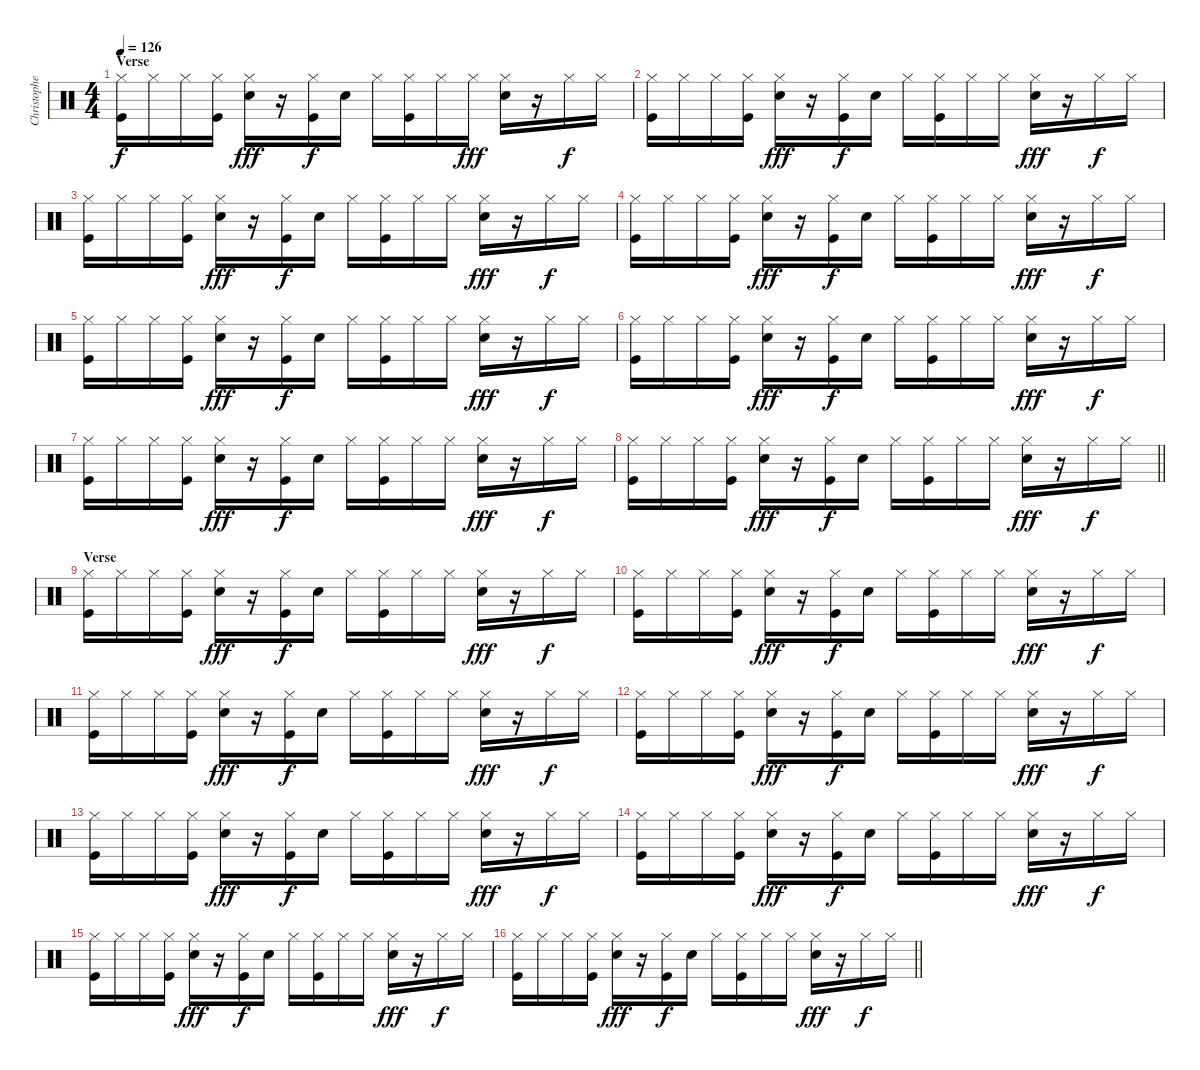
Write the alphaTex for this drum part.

\track ("Christopher - Drums" "Christophe") {mute instrument percussion}
\staff {score}
\articulation defaults
\ts (4 4)
\section ("" "Verse")
\tempo 126
\clef neutral
\ks c
("Hi-Hat (closed)" "Kick (hit)").16{dy f} "Hi-Hat (closed)".16 "Hi-Hat (closed)".16 ("Hi-Hat (closed)" "Kick (hit)").16 ("Hi-Hat (closed)" "Snare (hit) 2").16{dy fff} r.16 ("Hi-Hat (closed)" "Kick (hit)").16{dy f} "Snare (hit) 2".16 "Hi-Hat (closed)".16 ("Hi-Hat (closed)" "Kick (hit)").16 "Hi-Hat (closed)".16 "Hi-Hat (closed)".16{dy fff} ("Hi-Hat (closed)" "Snare (hit) 2").16 r.16 "Hi-Hat (closed)".16{dy f} "Hi-Hat (closed)".16 |
("Hi-Hat (closed)" "Kick (hit)").16 "Hi-Hat (closed)".16 "Hi-Hat (closed)".16 ("Hi-Hat (closed)" "Kick (hit)").16 ("Hi-Hat (closed)" "Snare (hit) 2").16{dy fff} r.16 ("Hi-Hat (closed)" "Kick (hit)").16{dy f} "Snare (hit) 2".16 "Hi-Hat (closed)".16 ("Hi-Hat (closed)" "Kick (hit)").16 "Hi-Hat (closed)".16 "Hi-Hat (closed)".16 ("Hi-Hat (closed)" "Snare (hit) 2").16{dy fff} r.16 "Hi-Hat (closed)".16{dy f} "Hi-Hat (closed)".16 |
("Hi-Hat (closed)" "Kick (hit)").16 "Hi-Hat (closed)".16 "Hi-Hat (closed)".16 ("Hi-Hat (closed)" "Kick (hit)").16 ("Hi-Hat (closed)" "Snare (hit) 2").16{dy fff} r.16 ("Hi-Hat (closed)" "Kick (hit)").16{dy f} "Snare (hit) 2".16 "Hi-Hat (closed)".16 ("Hi-Hat (closed)" "Kick (hit)").16 "Hi-Hat (closed)".16 "Hi-Hat (closed)".16 ("Hi-Hat (closed)" "Snare (hit) 2").16{dy fff} r.16 "Hi-Hat (closed)".16{dy f} "Hi-Hat (closed)".16 |
("Hi-Hat (closed)" "Kick (hit)").16 "Hi-Hat (closed)".16 "Hi-Hat (closed)".16 ("Hi-Hat (closed)" "Kick (hit)").16 ("Hi-Hat (closed)" "Snare (hit) 2").16{dy fff} r.16 ("Hi-Hat (closed)" "Kick (hit)").16{dy f} "Snare (hit) 2".16 "Hi-Hat (closed)".16 ("Hi-Hat (closed)" "Kick (hit)").16 "Hi-Hat (closed)".16 "Hi-Hat (closed)".16 ("Hi-Hat (closed)" "Snare (hit) 2").16{dy fff} r.16 "Hi-Hat (closed)".16{dy f} "Hi-Hat (closed)".16 |
("Hi-Hat (closed)" "Kick (hit)").16 "Hi-Hat (closed)".16 "Hi-Hat (closed)".16 ("Hi-Hat (closed)" "Kick (hit)").16 ("Hi-Hat (closed)" "Snare (hit) 2").16{dy fff} r.16 ("Hi-Hat (closed)" "Kick (hit)").16{dy f} "Snare (hit) 2".16 "Hi-Hat (closed)".16 ("Hi-Hat (closed)" "Kick (hit)").16 "Hi-Hat (closed)".16 "Hi-Hat (closed)".16 ("Hi-Hat (closed)" "Snare (hit) 2").16{dy fff} r.16 "Hi-Hat (closed)".16{dy f} "Hi-Hat (closed)".16 |
("Hi-Hat (closed)" "Kick (hit)").16 "Hi-Hat (closed)".16 "Hi-Hat (closed)".16 ("Hi-Hat (closed)" "Kick (hit)").16 ("Hi-Hat (closed)" "Snare (hit) 2").16{dy fff} r.16 ("Hi-Hat (closed)" "Kick (hit)").16{dy f} "Snare (hit) 2".16 "Hi-Hat (closed)".16 ("Hi-Hat (closed)" "Kick (hit)").16 "Hi-Hat (closed)".16 "Hi-Hat (closed)".16 ("Hi-Hat (closed)" "Snare (hit) 2").16{dy fff} r.16 "Hi-Hat (closed)".16{dy f} "Hi-Hat (closed)".16 |
("Hi-Hat (closed)" "Kick (hit)").16 "Hi-Hat (closed)".16 "Hi-Hat (closed)".16 ("Hi-Hat (closed)" "Kick (hit)").16 ("Hi-Hat (closed)" "Snare (hit) 2").16{dy fff} r.16 ("Hi-Hat (closed)" "Kick (hit)").16{dy f} "Snare (hit) 2".16 "Hi-Hat (closed)".16 ("Hi-Hat (closed)" "Kick (hit)").16 "Hi-Hat (closed)".16 "Hi-Hat (closed)".16 ("Hi-Hat (closed)" "Snare (hit) 2").16{dy fff} r.16 "Hi-Hat (closed)".16{dy f} "Hi-Hat (closed)".16 |
\barLineRight lightlight
("Hi-Hat (closed)" "Kick (hit)").16 "Hi-Hat (closed)".16 "Hi-Hat (closed)".16 ("Hi-Hat (closed)" "Kick (hit)").16 ("Hi-Hat (closed)" "Snare (hit) 2").16{dy fff} r.16 ("Hi-Hat (closed)" "Kick (hit)").16{dy f} "Snare (hit) 2".16 "Hi-Hat (closed)".16 ("Hi-Hat (closed)" "Kick (hit)").16 "Hi-Hat (closed)".16 "Hi-Hat (closed)".16 ("Hi-Hat (closed)" "Snare (hit) 2").16{dy fff} r.16 "Hi-Hat (closed)".16{dy f} "Hi-Hat (closed)".16 |
\section ("" "Verse")
("Hi-Hat (closed)" "Kick (hit)").16 "Hi-Hat (closed)".16 "Hi-Hat (closed)".16 ("Hi-Hat (closed)" "Kick (hit)").16 ("Hi-Hat (closed)" "Snare (hit) 2").16{dy fff} r.16 ("Hi-Hat (closed)" "Kick (hit)").16{dy f} "Snare (hit) 2".16 "Hi-Hat (closed)".16 ("Hi-Hat (closed)" "Kick (hit)").16 "Hi-Hat (closed)".16 "Hi-Hat (closed)".16 ("Hi-Hat (closed)" "Snare (hit) 2").16{dy fff} r.16 "Hi-Hat (closed)".16{dy f} "Hi-Hat (closed)".16 |
("Hi-Hat (closed)" "Kick (hit)").16 "Hi-Hat (closed)".16 "Hi-Hat (closed)".16 ("Hi-Hat (closed)" "Kick (hit)").16 ("Hi-Hat (closed)" "Snare (hit) 2").16{dy fff} r.16 ("Hi-Hat (closed)" "Kick (hit)").16{dy f} "Snare (hit) 2".16 "Hi-Hat (closed)".16 ("Hi-Hat (closed)" "Kick (hit)").16 "Hi-Hat (closed)".16 "Hi-Hat (closed)".16 ("Hi-Hat (closed)" "Snare (hit) 2").16{dy fff} r.16 "Hi-Hat (closed)".16{dy f} "Hi-Hat (closed)".16 |
("Hi-Hat (closed)" "Kick (hit)").16 "Hi-Hat (closed)".16 "Hi-Hat (closed)".16 ("Hi-Hat (closed)" "Kick (hit)").16 ("Hi-Hat (closed)" "Snare (hit) 2").16{dy fff} r.16 ("Hi-Hat (closed)" "Kick (hit)").16{dy f} "Snare (hit) 2".16 "Hi-Hat (closed)".16 ("Hi-Hat (closed)" "Kick (hit)").16 "Hi-Hat (closed)".16 "Hi-Hat (closed)".16 ("Hi-Hat (closed)" "Snare (hit) 2").16{dy fff} r.16 "Hi-Hat (closed)".16{dy f} "Hi-Hat (closed)".16 |
("Hi-Hat (closed)" "Kick (hit)").16 "Hi-Hat (closed)".16 "Hi-Hat (closed)".16 ("Hi-Hat (closed)" "Kick (hit)").16 ("Hi-Hat (closed)" "Snare (hit) 2").16{dy fff} r.16 ("Hi-Hat (closed)" "Kick (hit)").16{dy f} "Snare (hit) 2".16 "Hi-Hat (closed)".16 ("Hi-Hat (closed)" "Kick (hit)").16 "Hi-Hat (closed)".16 "Hi-Hat (closed)".16 ("Hi-Hat (closed)" "Snare (hit) 2").16{dy fff} r.16 "Hi-Hat (closed)".16{dy f} "Hi-Hat (closed)".16 |
("Hi-Hat (closed)" "Kick (hit)").16 "Hi-Hat (closed)".16 "Hi-Hat (closed)".16 ("Hi-Hat (closed)" "Kick (hit)").16 ("Hi-Hat (closed)" "Snare (hit) 2").16{dy fff} r.16 ("Hi-Hat (closed)" "Kick (hit)").16{dy f} "Snare (hit) 2".16 "Hi-Hat (closed)".16 ("Hi-Hat (closed)" "Kick (hit)").16 "Hi-Hat (closed)".16 "Hi-Hat (closed)".16 ("Hi-Hat (closed)" "Snare (hit) 2").16{dy fff} r.16 "Hi-Hat (closed)".16{dy f} "Hi-Hat (closed)".16 |
("Hi-Hat (closed)" "Kick (hit)").16 "Hi-Hat (closed)".16 "Hi-Hat (closed)".16 ("Hi-Hat (closed)" "Kick (hit)").16 ("Hi-Hat (closed)" "Snare (hit) 2").16{dy fff} r.16 ("Hi-Hat (closed)" "Kick (hit)").16{dy f} "Snare (hit) 2".16 "Hi-Hat (closed)".16 ("Hi-Hat (closed)" "Kick (hit)").16 "Hi-Hat (closed)".16 "Hi-Hat (closed)".16 ("Hi-Hat (closed)" "Snare (hit) 2").16{dy fff} r.16 "Hi-Hat (closed)".16{dy f} "Hi-Hat (closed)".16 |
("Hi-Hat (closed)" "Kick (hit)").16 "Hi-Hat (closed)".16 "Hi-Hat (closed)".16 ("Hi-Hat (closed)" "Kick (hit)").16 ("Hi-Hat (closed)" "Snare (hit) 2").16{dy fff} r.16 ("Hi-Hat (closed)" "Kick (hit)").16{dy f} "Snare (hit) 2".16 "Hi-Hat (closed)".16 ("Hi-Hat (closed)" "Kick (hit)").16 "Hi-Hat (closed)".16 "Hi-Hat (closed)".16 ("Hi-Hat (closed)" "Snare (hit) 2").16{dy fff} r.16 "Hi-Hat (closed)".16{dy f} "Hi-Hat (closed)".16 |
\barLineRight lightlight
("Hi-Hat (closed)" "Kick (hit)").16 "Hi-Hat (closed)".16 "Hi-Hat (closed)".16 ("Hi-Hat (closed)" "Kick (hit)").16 ("Hi-Hat (closed)" "Snare (hit) 2").16{dy fff} r.16 ("Hi-Hat (closed)" "Kick (hit)").16{dy f} "Snare (hit) 2".16 "Hi-Hat (closed)".16 ("Hi-Hat (closed)" "Kick (hit)").16 "Hi-Hat (closed)".16 "Hi-Hat (closed)".16 ("Hi-Hat (closed)" "Snare (hit) 2").16{dy fff} r.16 "Hi-Hat (closed)".16{dy f} "Hi-Hat (closed)".16
